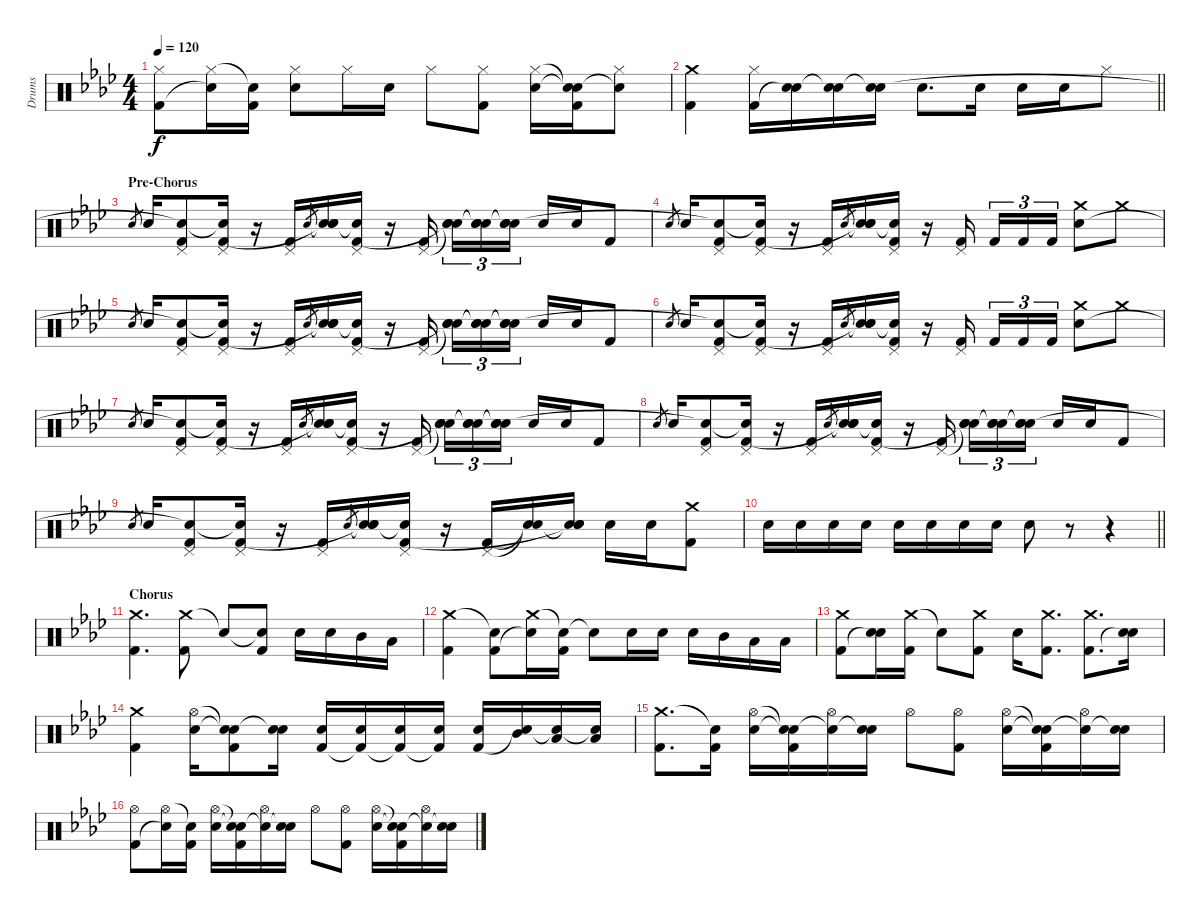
\track ("Drums" "Drums") {instrument percussion}
\staff {score}
\articulation defaults
\ts (4 4)
\tempo 120
\clef neutral
\ks fminor
("Hi-Hat (closed)" "Kick (hit) 2").8{dy f} ("Hi-Hat (closed)" "Snare (hit)"{t}).16 ("Snare (hit)"{t} "Kick (hit) 2").16 ("Hi-Hat (closed)" "Electric Snare (hit)").8 "Hi-Hat (closed)".16 "Electric Snare (hit)".16 "Hi-Hat (closed)".8 ("Hi-Hat (closed)" "Kick (hit) 2").8 ("Hi-Hat (closed)" "Electric Snare (hit)").16 ("Snare (hit)"{t} "Snare (hit)"{t} "Kick (hit) 2").16 ("Hi-Hat (closed)" "Snare (hit)"{t}).8 |
\barLineRight lightlight
("Crash medium (hit)" "Kick (hit) 2").4 ("Hi-Hat (closed)" "Kick (hit) 2").16 ("Electric Snare (hit)" "Snare (hit)"{t}).16 ("Electric Snare (hit)" "Snare (hit)"{t}).16 ("Electric Snare (hit)" "Snare (hit)"{t}).16 "Electric Snare (hit)".8{d} "Electric Snare (hit)".16 "Electric Snare (hit)".16 "Electric Snare (hit)".16 "Hi-Hat (closed)".8 |
\section ("" "Pre-Chorus")
"Electric Snare (hit)".8{gr} "Electric Snare (hit)".16 ("Pedal Hi-Hat (hit)" "Snare (hit)"{t} "Kick (hit) 2").8 ("Pedal Hi-Hat (hit)" "Snare (hit)"{t} "Kick (hit) 2").16 r.16 ("Pedal Hi-Hat (hit)" "Kick (hit) 2").16 "Electric Snare (hit)".8{gr} ("Snare (hit)"{t} "Electric Snare (hit)" "Snare (hit)"{t}).16 ("Pedal Hi-Hat (hit)" "Snare (hit)"{t} "Kick (hit) 2").16 r.16 ("Pedal Hi-Hat (hit)" "Kick (hit) 2").16{beam splitsecondary} ("Snare (hit)"{t} "Electric Snare (hit)" "Snare (hit)"{t}).16{tu (3 2)} ("Snare (hit)"{t} "Electric Snare (hit)" "Snare (hit)"{t}).16{tu (3 2)} ("Snare (hit)"{t} "Electric Snare (hit)" "Snare (hit)"{t}).16{tu (3 2)} "Electric Snare (hit)".16 "Electric Snare (hit)".16 "Kick (hit) 2".8 |
"Electric Snare (hit)".8{gr} "Electric Snare (hit)".16 ("Pedal Hi-Hat (hit)" "Snare (hit)"{t} "Kick (hit) 2").8 ("Pedal Hi-Hat (hit)" "Snare (hit)"{t} "Kick (hit) 2").16 r.16 ("Pedal Hi-Hat (hit)" "Kick (hit) 2").16 "Electric Snare (hit)".8{gr} ("Snare (hit)"{t} "Electric Snare (hit)" "Snare (hit)"{t}).16 ("Pedal Hi-Hat (hit)" "Snare (hit)"{t} "Kick (hit) 2").16 r.16 ("Pedal Hi-Hat (hit)" "Kick (hit) 2").16{beam splitsecondary} "Kick (hit) 2".16{tu (3 2)} "Kick (hit) 2".16{tu (3 2)} "Kick (hit) 2".16{tu (3 2)} ("Crash medium (hit)" "Electric Snare (hit)").8 "Crash medium (hit)".8 |
"Electric Snare (hit)".8{gr} "Electric Snare (hit)".16 ("Pedal Hi-Hat (hit)" "Snare (hit)"{t} "Kick (hit) 2").8 ("Pedal Hi-Hat (hit)" "Snare (hit)"{t} "Kick (hit) 2").16 r.16 ("Pedal Hi-Hat (hit)" "Kick (hit) 2").16 "Electric Snare (hit)".8{gr} ("Snare (hit)"{t} "Electric Snare (hit)" "Snare (hit)"{t}).16 ("Pedal Hi-Hat (hit)" "Snare (hit)"{t} "Kick (hit) 2").16 r.16 ("Pedal Hi-Hat (hit)" "Kick (hit) 2").16{beam splitsecondary} ("Snare (hit)"{t} "Electric Snare (hit)" "Snare (hit)"{t}).16{tu (3 2)} ("Snare (hit)"{t} "Electric Snare (hit)" "Snare (hit)"{t}).16{tu (3 2)} ("Snare (hit)"{t} "Electric Snare (hit)" "Snare (hit)"{t}).16{tu (3 2)} "Electric Snare (hit)".16 "Electric Snare (hit)".16 "Kick (hit) 2".8 |
"Electric Snare (hit)".8{gr} "Electric Snare (hit)".16 ("Pedal Hi-Hat (hit)" "Snare (hit)"{t} "Kick (hit) 2").8 ("Pedal Hi-Hat (hit)" "Snare (hit)"{t} "Kick (hit) 2").16 r.16 ("Pedal Hi-Hat (hit)" "Kick (hit) 2").16 "Electric Snare (hit)".8{gr} ("Snare (hit)"{t} "Electric Snare (hit)" "Snare (hit)"{t}).16 ("Pedal Hi-Hat (hit)" "Snare (hit)"{t} "Kick (hit) 2").16 r.16 ("Pedal Hi-Hat (hit)" "Kick (hit) 2").16{beam splitsecondary} "Kick (hit) 2".16{tu (3 2)} "Kick (hit) 2".16{tu (3 2)} "Kick (hit) 2".16{tu (3 2)} ("Crash medium (hit)" "Electric Snare (hit)").8 "Crash medium (hit)".8 |
"Electric Snare (hit)".8{gr} "Electric Snare (hit)".16 ("Pedal Hi-Hat (hit)" "Snare (hit)"{t} "Kick (hit) 2").8 ("Pedal Hi-Hat (hit)" "Snare (hit)"{t} "Kick (hit) 2").16 r.16 ("Pedal Hi-Hat (hit)" "Kick (hit) 2").16 "Electric Snare (hit)".8{gr} ("Snare (hit)"{t} "Electric Snare (hit)" "Snare (hit)"{t}).16 ("Pedal Hi-Hat (hit)" "Snare (hit)"{t} "Kick (hit) 2").16 r.16 ("Pedal Hi-Hat (hit)" "Kick (hit) 2").16{beam splitsecondary} ("Snare (hit)"{t} "Electric Snare (hit)" "Snare (hit)"{t}).16{tu (3 2)} ("Snare (hit)"{t} "Electric Snare (hit)" "Snare (hit)"{t}).16{tu (3 2)} ("Snare (hit)"{t} "Electric Snare (hit)" "Snare (hit)"{t}).16{tu (3 2)} "Electric Snare (hit)".16 "Electric Snare (hit)".16 "Kick (hit) 2".8 |
"Electric Snare (hit)".8{gr} "Electric Snare (hit)".16 ("Pedal Hi-Hat (hit)" "Snare (hit)"{t} "Kick (hit) 2").8 ("Pedal Hi-Hat (hit)" "Snare (hit)"{t} "Kick (hit) 2").16 r.16 ("Pedal Hi-Hat (hit)" "Kick (hit) 2").16 "Electric Snare (hit)".8{gr} ("Snare (hit)"{t} "Electric Snare (hit)" "Snare (hit)"{t}).16 ("Pedal Hi-Hat (hit)" "Snare (hit)"{t} "Kick (hit) 2").16 r.16 ("Pedal Hi-Hat (hit)" "Kick (hit) 2").16{beam splitsecondary} ("Snare (hit)"{t} "Electric Snare (hit)" "Snare (hit)"{t}).16{tu (3 2)} ("Snare (hit)"{t} "Electric Snare (hit)" "Snare (hit)"{t}).16{tu (3 2)} ("Snare (hit)"{t} "Electric Snare (hit)" "Snare (hit)"{t}).16{tu (3 2)} "Electric Snare (hit)".16 "Electric Snare (hit)".16 "Kick (hit) 2".8 |
"Electric Snare (hit)".8{gr} "Electric Snare (hit)".16 ("Pedal Hi-Hat (hit)" "Snare (hit)"{t} "Kick (hit) 2").8 ("Pedal Hi-Hat (hit)" "Snare (hit)"{t} "Kick (hit) 2").16 r.16 ("Pedal Hi-Hat (hit)" "Kick (hit) 2").16 "Electric Snare (hit)".8{gr} ("Snare (hit)"{t} "Electric Snare (hit)" "Snare (hit)"{t}).16 ("Pedal Hi-Hat (hit)" "Snare (hit)"{t} "Kick (hit) 2").16 r.16 ("Pedal Hi-Hat (hit)" "Kick (hit) 2").16 ("Snare (hit)"{t} "Snare (hit)"{t}).16 ("Snare (hit)"{t} "Electric Snare (hit)" "Snare (hit)"{t}).16 "Electric Snare (hit)".16 "Electric Snare (hit)".16 ("Crash medium (hit)" "Kick (hit) 2").8 |
\barLineRight lightlight "Electric Snare (hit)".16 "Electric Snare (hit)".16 "Electric Snare (hit)".16 "Electric Snare (hit)".16 "Electric Snare (hit)".16 "Electric Snare (hit)".16 "Electric Snare (hit)".16 "Electric Snare (hit)".16 "Electric Snare (hit)".8
r.8 r.4 |
\section ("" "Chorus")
("Crash medium (hit)" "Kick (hit) 2").4{d} ("Crash medium (hit)" "Kick (hit) 2").8 "Snare (hit)"{t}.8 ("Snare (hit)"{t} "Kick (hit) 2").8 "Electric Snare (hit)".16 "Electric Snare (hit)".16 "Mid Tom (hit)".16 "Low Floor Tom (hit)".16 |
("Crash medium (hit)" "Kick (hit) 2").4 ("Snare (hit)"{t} "Kick (hit) 2").8 ("Crash medium (hit)" "Snare (hit)"{t}).16 ("Snare (hit)"{t} "Kick (hit) 2").16 "Snare (hit)"{t}.8 "Electric Snare (hit)".16 "Electric Snare (hit)".16 "Electric Snare (hit)".16 "Mid Tom (hit)".16 "Low Tom (hit)".16 "Low Floor Tom (hit)".16 |
("Crash medium (hit)" "Kick (hit) 2").8 ("Electric Snare (hit)" "Snare (hit)"{t}).16 ("Crash medium (hit)" "Kick (hit) 2").16 "Snare (hit)"{t}.8 ("Crash medium (hit)" "Kick (hit) 2").8 "Electric Snare (hit)".16 ("Crash medium (hit)" "Kick (hit) 2").8{d} ("Crash medium (hit)" "Kick (hit) 2").8{d} ("Electric Snare (hit)" "Snare (hit)"{t}).16 |
("Crash medium (hit)" "Kick (hit) 2").4 ("Hi-Hat (open)" "Electric Snare (hit)").16 ("Snare (hit)"{t} "Snare (hit)"{t} "Kick (hit) 2").8 ("Electric Snare (hit)" "Snare (hit)"{t}).16 ("Electric Snare (hit)" "Kick (hit) 2").16 ("Electric Snare (hit)" "Kick (hit) 2"{t}).16 ("Electric Snare (hit)" "Kick (hit) 2"{t}).16 ("Electric Snare (hit)" "Kick (hit) 2"{t}).16 ("Electric Snare (hit)" "Kick (hit) 2").16 ("Mid Tom (hit)" "Snare (hit)"{t}).16 ("Low Tom (hit)" "Snare (hit)"{t}).16 ("Low Floor Tom (hit)" "Snare (hit)"{t}).16 |
("Crash medium (hit)" "Kick (hit) 2").8{d} ("Snare (hit)"{t} "Kick (hit) 2").16 ("Hi-Hat (open)" "Electric Snare (hit)").16 ("Snare (hit)"{t} "Snare (hit)"{t} "Kick (hit) 2").16 ("Hi-Hat (open)" "Snare (hit)"{t}).16 ("Electric Snare (hit)" "Snare (hit)"{t}).16 "Hi-Hat (open)".8 ("Hi-Hat (open)" "Kick (hit) 2").8 ("Hi-Hat (open)" "Electric Snare (hit)").16 ("Snare (hit)"{t} "Snare (hit)"{t} "Kick (hit) 2").16 ("Hi-Hat (open)" "Snare (hit)"{t}).16 ("Electric Snare (hit)" "Snare (hit)"{t}).16 |
("Hi-Hat (open)" "Kick (hit) 2").8 ("Hi-Hat (open)" "Snare (hit)"{t}).16 ("Snare (hit)"{t} "Kick (hit) 2").16 ("Hi-Hat (open)" "Electric Snare (hit)").16 ("Snare (hit)"{t} "Snare (hit)"{t} "Kick (hit) 2").16 ("Hi-Hat (open)" "Snare (hit)"{t}).16 ("Electric Snare (hit)" "Snare (hit)"{t}).16 "Hi-Hat (open)".8 ("Hi-Hat (open)" "Kick (hit) 2").8 ("Hi-Hat (open)" "Electric Snare (hit)").16 ("Snare (hit)"{t} "Snare (hit)"{t} "Kick (hit) 2").16 ("Hi-Hat (open)" "Snare (hit)"{t}).16 ("Electric Snare (hit)" "Snare (hit)"{t}).16
